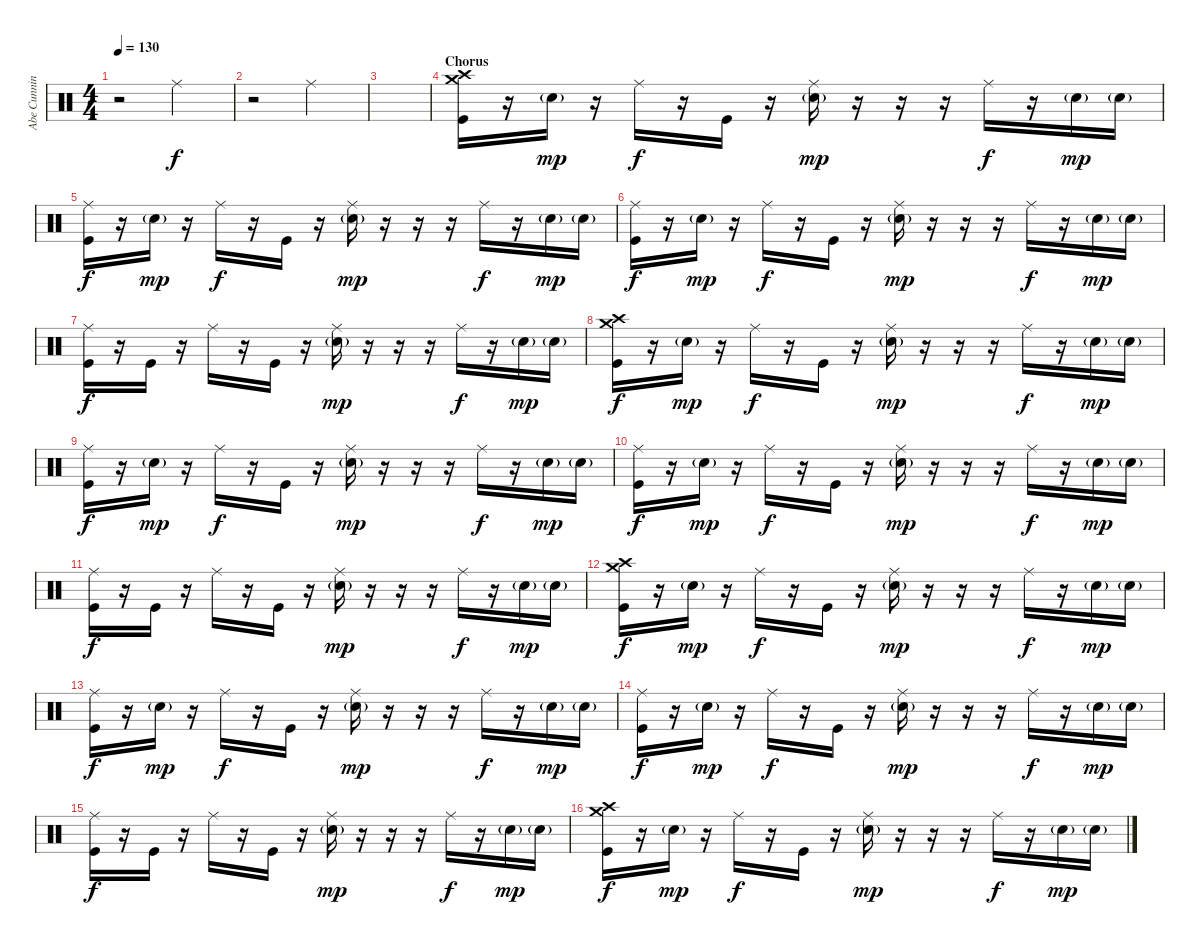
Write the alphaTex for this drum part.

\track ("Abe Cunningham" "Abe Cunnin") {instrument percussion}
\staff {score}
\articulation defaults
\ts (4 4)
\tempo 130
\clef neutral
\ks c
r.2{dy f} "Ride (middle)".2 |
r.2 "Ride (middle)".2 |
|
\section ("" "Chorus")
("Crash high (hit)" "Crash medium (hit)" "Kick (hit)").16 r.16 "Electric Snare (hit)"{g}.16{dy mp} r.16 "Ride (middle)".16{dy f} r.16 "Kick (hit)".16 r.16 ("Ride (middle)" "Electric Snare (hit)"{g}).16{dy mp} r.16 r.16 r.16 "Ride (middle)".16{dy f} r.16 "Electric Snare (hit)"{g}.16{dy mp} "Electric Snare (hit)"{g}.16 |
("Ride (middle)" "Kick (hit)").16{dy f} r.16 "Electric Snare (hit)"{g}.16{dy mp} r.16 "Ride (middle)".16{dy f} r.16 "Kick (hit)".16 r.16 ("Ride (middle)" "Electric Snare (hit)"{g}).16{dy mp} r.16 r.16 r.16 "Ride (middle)".16{dy f} r.16 "Electric Snare (hit)"{g}.16{dy mp} "Electric Snare (hit)"{g}.16 |
("Ride (middle)" "Kick (hit)").16{dy f} r.16 "Electric Snare (hit)"{g}.16{dy mp} r.16 "Ride (middle)".16{dy f} r.16 "Kick (hit)".16 r.16 ("Ride (middle)" "Electric Snare (hit)"{g}).16{dy mp} r.16 r.16 r.16 "Ride (middle)".16{dy f} r.16 "Electric Snare (hit)"{g}.16{dy mp} "Electric Snare (hit)"{g}.16 |
("Ride (middle)" "Kick (hit)").16{dy f} r.16 "Kick (hit)".16 r.16 "Ride (middle)".16 r.16 "Kick (hit)".16 r.16 ("Ride (middle)" "Electric Snare (hit)"{g}).16{dy mp} r.16 r.16 r.16 "Ride (middle)".16{dy f} r.16 "Electric Snare (hit)"{g}.16{dy mp} "Electric Snare (hit)"{g}.16 |
("Crash high (hit)" "Crash medium (hit)" "Kick (hit)").16{dy f} r.16 "Electric Snare (hit)"{g}.16{dy mp} r.16 "Ride (middle)".16{dy f} r.16 "Kick (hit)".16 r.16 ("Ride (middle)" "Electric Snare (hit)"{g}).16{dy mp} r.16 r.16 r.16 "Ride (middle)".16{dy f} r.16 "Electric Snare (hit)"{g}.16{dy mp} "Electric Snare (hit)"{g}.16 |
("Ride (middle)" "Kick (hit)").16{dy f} r.16 "Electric Snare (hit)"{g}.16{dy mp} r.16 "Ride (middle)".16{dy f} r.16 "Kick (hit)".16 r.16 ("Ride (middle)" "Electric Snare (hit)"{g}).16{dy mp} r.16 r.16 r.16 "Ride (middle)".16{dy f} r.16 "Electric Snare (hit)"{g}.16{dy mp} "Electric Snare (hit)"{g}.16 |
("Ride (middle)" "Kick (hit)").16{dy f} r.16 "Electric Snare (hit)"{g}.16{dy mp} r.16 "Ride (middle)".16{dy f} r.16 "Kick (hit)".16 r.16 ("Ride (middle)" "Electric Snare (hit)"{g}).16{dy mp} r.16 r.16 r.16 "Ride (middle)".16{dy f} r.16 "Electric Snare (hit)"{g}.16{dy mp} "Electric Snare (hit)"{g}.16 |
("Ride (middle)" "Kick (hit)").16{dy f} r.16 "Kick (hit)".16 r.16 "Ride (middle)".16 r.16 "Kick (hit)".16 r.16 ("Ride (middle)" "Electric Snare (hit)"{g}).16{dy mp} r.16 r.16 r.16 "Ride (middle)".16{dy f} r.16 "Electric Snare (hit)"{g}.16{dy mp} "Electric Snare (hit)"{g}.16 |
("Crash high (hit)" "Crash medium (hit)" "Kick (hit)").16{dy f} r.16 "Electric Snare (hit)"{g}.16{dy mp} r.16 "Ride (middle)".16{dy f} r.16 "Kick (hit)".16 r.16 ("Ride (middle)" "Electric Snare (hit)"{g}).16{dy mp} r.16 r.16 r.16 "Ride (middle)".16{dy f} r.16 "Electric Snare (hit)"{g}.16{dy mp} "Electric Snare (hit)"{g}.16 |
("Ride (middle)" "Kick (hit)").16{dy f} r.16 "Electric Snare (hit)"{g}.16{dy mp} r.16 "Ride (middle)".16{dy f} r.16 "Kick (hit)".16 r.16 ("Ride (middle)" "Electric Snare (hit)"{g}).16{dy mp} r.16 r.16 r.16 "Ride (middle)".16{dy f} r.16 "Electric Snare (hit)"{g}.16{dy mp} "Electric Snare (hit)"{g}.16 |
("Ride (middle)" "Kick (hit)").16{dy f} r.16 "Electric Snare (hit)"{g}.16{dy mp} r.16 "Ride (middle)".16{dy f} r.16 "Kick (hit)".16 r.16 ("Ride (middle)" "Electric Snare (hit)"{g}).16{dy mp} r.16 r.16 r.16 "Ride (middle)".16{dy f} r.16 "Electric Snare (hit)"{g}.16{dy mp} "Electric Snare (hit)"{g}.16 |
("Ride (middle)" "Kick (hit)").16{dy f} r.16 "Kick (hit)".16 r.16 "Ride (middle)".16 r.16 "Kick (hit)".16 r.16 ("Ride (middle)" "Electric Snare (hit)"{g}).16{dy mp} r.16 r.16 r.16 "Ride (middle)".16{dy f} r.16 "Electric Snare (hit)"{g}.16{dy mp} "Electric Snare (hit)"{g}.16 |
("Crash high (hit)" "Crash medium (hit)" "Kick (hit)").16{dy f} r.16 "Electric Snare (hit)"{g}.16{dy mp} r.16 "Ride (middle)".16{dy f} r.16 "Kick (hit)".16 r.16 ("Ride (middle)" "Electric Snare (hit)"{g}).16{dy mp} r.16 r.16 r.16 "Ride (middle)".16{dy f} r.16 "Electric Snare (hit)"{g}.16{dy mp} "Electric Snare (hit)"{g}.16
